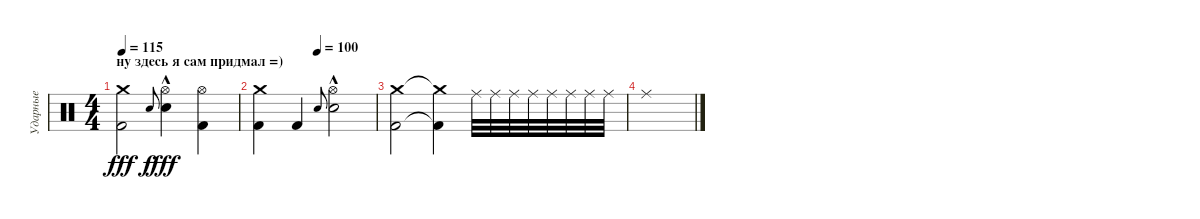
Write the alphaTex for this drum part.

\track ("Ударные" "Ударные") {instrument percussion}
\staff {score}
\articulation defaults
\ts (4 4)
\section ("" "ну здесь я сам придмал =)")
\tempo 115
\clef neutral
\ks c
("Crash medium (hit)" "Kick (hit) 2").2{dy fff} "Electric Snare (hit)"{h}.8{gr onbeat dy f} ("Hi-Hat (open)" "Electric Snare (hit)"{hac}).4{dy fff} ("Hi-Hat (open)" "Kick (hit) 2").4 |
\tempo (100 0.5)
("Crash medium (hit)" "Kick (hit) 2").4 "Kick (hit) 2".4 "Electric Snare (hit)"{h}.8{gr onbeat} ("Hi-Hat (open)" "Electric Snare (hit)"{hac}).2 |
("Crash medium (hit)" "Kick (hit) 2").2 ("Crash medium (hit)"{t} "Kick (hit) 2"{t}).4 "Ride (middle)".32 "Ride (middle)".32 "Ride (middle)".32 "Ride (middle)".32 "Ride (middle)".32 "Ride (middle)".32 "Ride (middle)".32 "Ride (middle)".32 |
"Ride (middle)".1
